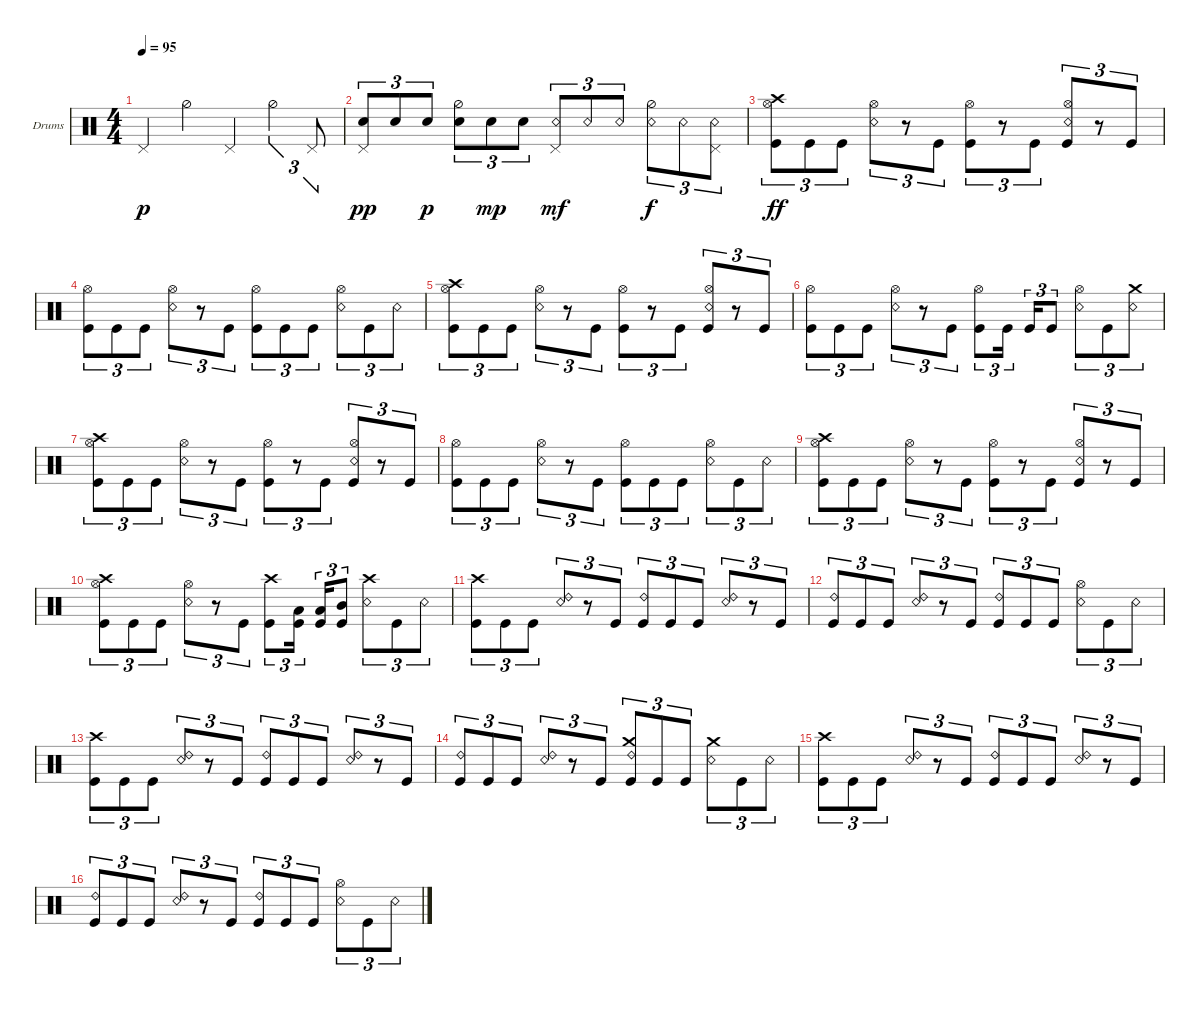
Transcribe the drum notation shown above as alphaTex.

\defaultSystemsLayout 4
\bracketExtendMode groupsimilarinstruments
\firstSystemTrackNameOrientation horizontal
\otherSystemsTrackNameOrientation horizontal
\track ("Drumkit" "Drums") {instrument percussion}
\staff {score}
\articulation defaults
\ts (4 4)
\tempo 95
\clef neutral
\ks c "Pedal Hi-Hat (hit)".4{dy p} "Hi-Hat (half)".4 "Pedal Hi-Hat (hit)".4 "Hi-Hat (half)".4{tu (3 2)} "Pedal Hi-Hat (hit)".8{tu (3 2)}
|
("Snare (hit) 2" "Pedal Hi-Hat (hit)").8{tu (3 2) dy pp} "Snare (hit) 2".8{tu (3 2)} "Snare (hit) 2".8{tu (3 2) dy p} ("Snare (hit) 2" "Hi-Hat (half)").8{tu (3 2)} "Snare (hit) 2".8{tu (3 2) dy mp} "Snare (hit) 2".8{tu (3 2)} ("Snare (rim shot)" "Pedal Hi-Hat (hit)").8{tu (3 2) dy mf} "Snare (rim shot)".8{tu (3 2)} "Snare (rim shot)".8{tu (3 2)} ("Snare (rim shot)" "Hi-Hat (half)").8{tu (3 2) dy f} "Snare (rim shot)".8{tu (3 2)} ("Snare (rim shot)" "Pedal Hi-Hat (hit)").8{tu (3 2)} |
("Hi-Hat (open)" "Kick (hit)" "Crash high (hit)").8{tu (3 2) dy ff} "Kick (hit)".8{tu (3 2)} "Kick (hit)".8{tu (3 2)} ("Hi-Hat (open)" "Snare (rim shot)").8{tu (3 2)} r.8{tu (3 2)} "Kick (hit)".8{tu (3 2)} ("Hi-Hat (open)" "Kick (hit)").8{tu (3 2)} r.8{tu (3 2)} "Kick (hit)".8{tu (3 2)} ("Hi-Hat (open)" "Kick (hit)" "Snare (rim shot)").8{tu (3 2)} r.8{tu (3 2)} "Kick (hit)".8{tu (3 2)} |
("Kick (hit)" "Hi-Hat (open)").8{tu (3 2)} "Kick (hit)".8{tu (3 2)} "Kick (hit)".8{tu (3 2)} ("Snare (rim shot)" "Hi-Hat (open)").8{tu (3 2)} r.8{tu (3 2)} "Kick (hit)".8{tu (3 2)} ("Kick (hit)" "Hi-Hat (open)").8{tu (3 2)} "Kick (hit)".8{tu (3 2)} "Kick (hit)".8{tu (3 2)} ("Snare (rim shot)" "Hi-Hat (open)").8{tu (3 2)} "Kick (hit)".8{tu (3 2)} "Snare (rim shot)".8{tu (3 2)} |
("Hi-Hat (open)" "Kick (hit)" "Crash high (hit)").8{tu (3 2)} "Kick (hit)".8{tu (3 2)} "Kick (hit)".8{tu (3 2)} ("Hi-Hat (open)" "Snare (rim shot)").8{tu (3 2)} r.8{tu (3 2)} "Kick (hit)".8{tu (3 2)} ("Hi-Hat (open)" "Kick (hit)").8{tu (3 2)} r.8{tu (3 2)} "Kick (hit)".8{tu (3 2)} ("Hi-Hat (open)" "Kick (hit)" "Snare (rim shot)").8{tu (3 2)} r.8{tu (3 2)} "Kick (hit)".8{tu (3 2)} |
("Kick (hit)" "Hi-Hat (open)").8{tu (3 2)} "Kick (hit)".8{tu (3 2)} "Kick (hit)".8{tu (3 2)} ("Snare (rim shot)" "Hi-Hat (open)").8{tu (3 2)} r.8{tu (3 2)} "Kick (hit)".8{tu (3 2)} ("Kick (hit)" "Hi-Hat (open)").8{tu (3 2)} "Kick (hit)".16{tu (3 2)} "Kick (hit)".16{tu (3 2)} "Kick (hit)".8{tu (3 2)} ("Snare (rim shot)" "Hi-Hat (open)").8{tu (3 2)} "Kick (hit)".8{tu (3 2)} ("Snare (rim shot)" "Crash medium (hit)").8{tu (3 2)} |
("Hi-Hat (open)" "Kick (hit)" "Crash high (hit)").8{tu (3 2)} "Kick (hit)".8{tu (3 2)} "Kick (hit)".8{tu (3 2)} ("Hi-Hat (open)" "Snare (rim shot)").8{tu (3 2)} r.8{tu (3 2)} "Kick (hit)".8{tu (3 2)} ("Hi-Hat (open)" "Kick (hit)").8{tu (3 2)} r.8{tu (3 2)} "Kick (hit)".8{tu (3 2)} ("Hi-Hat (open)" "Kick (hit)" "Snare (rim shot)").8{tu (3 2)} r.8{tu (3 2)} "Kick (hit)".8{tu (3 2)} |
("Kick (hit)" "Hi-Hat (open)").8{tu (3 2)} "Kick (hit)".8{tu (3 2)} "Kick (hit)".8{tu (3 2)} ("Snare (rim shot)" "Hi-Hat (open)").8{tu (3 2)} r.8{tu (3 2)} "Kick (hit)".8{tu (3 2)} ("Kick (hit)" "Hi-Hat (open)").8{tu (3 2)} "Kick (hit)".8{tu (3 2)} "Kick (hit)".8{tu (3 2)} ("Snare (rim shot)" "Hi-Hat (open)").8{tu (3 2)} "Kick (hit)".8{tu (3 2)} "Snare (rim shot)".8{tu (3 2)} |
("Hi-Hat (open)" "Kick (hit)" "Crash high (hit)").8{tu (3 2)} "Kick (hit)".8{tu (3 2)} "Kick (hit)".8{tu (3 2)} ("Hi-Hat (open)" "Snare (rim shot)").8{tu (3 2)} r.8{tu (3 2)} "Kick (hit)".8{tu (3 2)} ("Hi-Hat (open)" "Kick (hit)").8{tu (3 2)} r.8{tu (3 2)} "Kick (hit)".8{tu (3 2)} ("Hi-Hat (open)" "Kick (hit)" "Snare (rim shot)").8{tu (3 2)} r.8{tu (3 2)} "Kick (hit)".8{tu (3 2)} |
("Kick (hit)" "Hi-Hat (open)" "Crash high (hit)").8{tu (3 2)} "Kick (hit)".8{tu (3 2)} "Kick (hit)".8{tu (3 2)} ("Snare (rim shot)" "Hi-Hat (open)").8{tu (3 2)} r.8{tu (3 2)} "Kick (hit)".8{tu (3 2)} ("Kick (hit)" "Crash high (hit)").8{tu (3 2)} ("Kick (hit)" "Low Tom (hit)").16{tu (3 2)} ("Kick (hit)" "Low Tom (hit)").16{tu (3 2)} ("Kick (hit)" "Mid Tom (hit)").8{tu (3 2)} ("Crash high (hit)" "Snare (rim shot)").8{tu (3 2)} "Kick (hit)".8{tu (3 2)} "Snare (rim shot)".8{tu (3 2)} |
("Kick (hit)" "Crash high (hit)").8{tu (3 2)} "Kick (hit)".8{tu (3 2)} "Kick (hit)".8{tu (3 2)} ("Ride (bell) 2" "Snare (rim shot)").8{tu (3 2)} r.8{tu (3 2)} "Kick (hit)".8{tu (3 2)} ("Kick (hit)" "Ride (bell) 2").8{tu (3 2)} "Kick (hit)".8{tu (3 2)} "Kick (hit)".8{tu (3 2)} ("Ride (bell) 2" "Snare (rim shot)").8{tu (3 2)} r.8{tu (3 2)} "Kick (hit)".8{tu (3 2)} |
("Kick (hit)" "Ride (bell) 2").8{tu (3 2)} "Kick (hit)".8{tu (3 2)} "Kick (hit)".8{tu (3 2)} ("Ride (bell) 2" "Snare (rim shot)").8{tu (3 2)} r.8{tu (3 2)} "Kick (hit)".8{tu (3 2)} ("Kick (hit)" "Ride (bell) 2").8{tu (3 2)} "Kick (hit)".8{tu (3 2)} "Kick (hit)".8{tu (3 2)} ("Snare (rim shot)" "Hi-Hat (open)").8{tu (3 2)} "Kick (hit)".8{tu (3 2)} "Snare (rim shot)".8{tu (3 2)} |
("Kick (hit)" "Crash high (hit)").8{tu (3 2)} "Kick (hit)".8{tu (3 2)} "Kick (hit)".8{tu (3 2)} ("Ride (bell) 2" "Snare (rim shot)").8{tu (3 2)} r.8{tu (3 2)} "Kick (hit)".8{tu (3 2)} ("Kick (hit)" "Ride (bell) 2").8{tu (3 2)} "Kick (hit)".8{tu (3 2)} "Kick (hit)".8{tu (3 2)} ("Ride (bell) 2" "Snare (rim shot)").8{tu (3 2)} r.8{tu (3 2)} "Kick (hit)".8{tu (3 2)} |
("Kick (hit)" "Ride (bell) 2").8{tu (3 2)} "Kick (hit)".8{tu (3 2)} "Kick (hit)".8{tu (3 2)} ("Ride (bell) 2" "Snare (rim shot)").8{tu (3 2)} r.8{tu (3 2)} "Kick (hit)".8{tu (3 2)} ("Kick (hit)" "Ride (bell) 2" "Crash medium (hit)").8{tu (3 2)} "Kick (hit)".8{tu (3 2)} "Kick (hit)".8{tu (3 2)} ("Snare (rim shot)" "Crash medium (hit)").8{tu (3 2)} "Kick (hit)".8{tu (3 2)} "Snare (rim shot)".8{tu (3 2)} |
("Kick (hit)" "Crash high (hit)").8{tu (3 2)} "Kick (hit)".8{tu (3 2)} "Kick (hit)".8{tu (3 2)} ("Ride (bell) 2" "Snare (rim shot)").8{tu (3 2)} r.8{tu (3 2)} "Kick (hit)".8{tu (3 2)} ("Kick (hit)" "Ride (bell) 2").8{tu (3 2)} "Kick (hit)".8{tu (3 2)} "Kick (hit)".8{tu (3 2)} ("Ride (bell) 2" "Snare (rim shot)").8{tu (3 2)} r.8{tu (3 2)} "Kick (hit)".8{tu (3 2)} |
("Kick (hit)" "Ride (bell) 2").8{tu (3 2)} "Kick (hit)".8{tu (3 2)} "Kick (hit)".8{tu (3 2)} ("Ride (bell) 2" "Snare (rim shot)").8{tu (3 2)} r.8{tu (3 2)} "Kick (hit)".8{tu (3 2)} ("Kick (hit)" "Ride (bell) 2").8{tu (3 2)} "Kick (hit)".8{tu (3 2)} "Kick (hit)".8{tu (3 2)} ("Snare (rim shot)" "Hi-Hat (open)").8{tu (3 2)} "Kick (hit)".8{tu (3 2)} "Snare (rim shot)".8{tu (3 2)}
